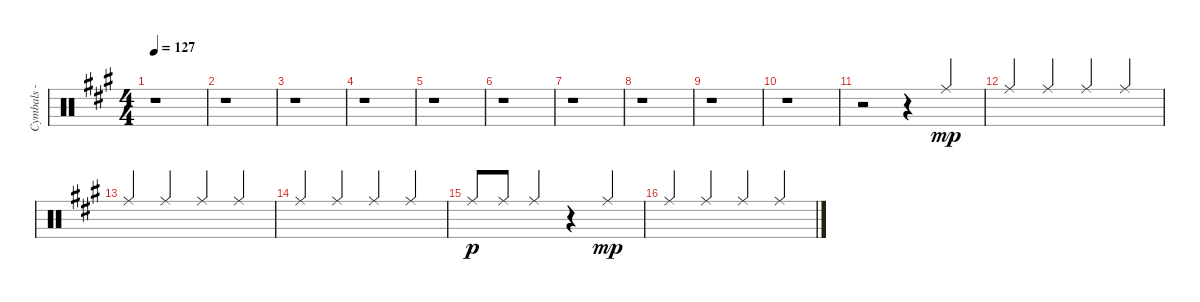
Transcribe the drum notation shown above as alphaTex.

\track ("Cymbals - ride" "Cymbals - ") {instrument percussion}
\staff {score}
\articulation defaults
\ts (4 4)
\tempo 127
\clef neutral
\ks a
r.1{dy mp} |
r.1 |
r.1 |
r.1 |
r.1 |
r.1 |
r.1 |
r.1 |
r.1 |
r.1 |
r.2 r.4 "Ride (middle)".4{beam Up} |
"Ride (middle)".4{beam Up} "Ride (middle)".4{beam Up} "Ride (middle)".4{beam Up} "Ride (middle)".4{beam Up} |
"Ride (middle)".4{beam Up} "Ride (middle)".4{beam Up} "Ride (middle)".4{beam Up} "Ride (middle)".4{beam Up} |
"Ride (middle)".4{beam Up} "Ride (middle)".4{beam Up} "Ride (middle)".4{beam Up} "Ride (middle)".4{beam Up} |
"Ride (middle)".8{dy p beam Up} "Ride (middle)".8{beam Up beam merge} "Ride (middle)".4{beam Up} r.4 "Ride (middle)".4{dy mp beam Up} |
"Ride (middle)".4{beam Up} "Ride (middle)".4{beam Up} "Ride (middle)".4{beam Up} "Ride (middle)".4{beam Up}
